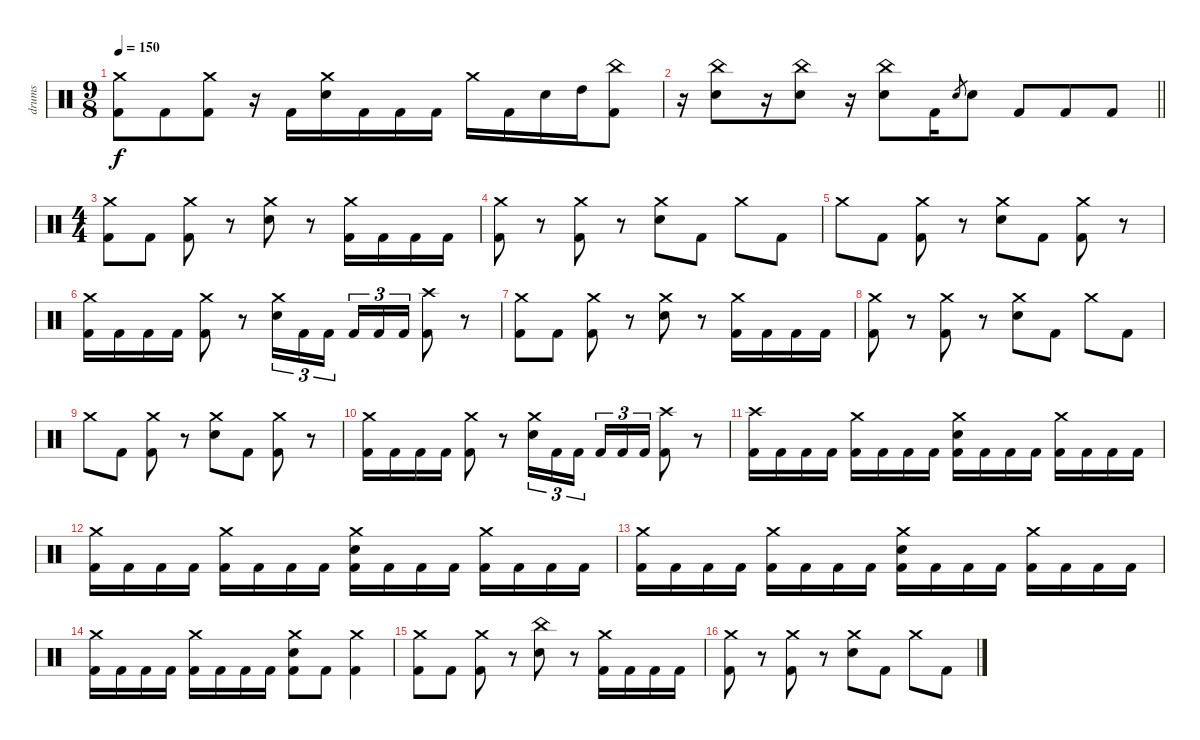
\track ("drums" "drums") {instrument percussion}
\staff {score}
\articulation defaults
\ts (9 8)
\tempo 150
\clef neutral
\ks c
("Crash medium (hit)" "Kick (hit) 2").8{dy f} "Kick (hit) 2".8 ("Crash medium (hit)" "Kick (hit) 2").8 r.16 "Kick (hit) 2".16 ("Crash medium (hit)" "Electric Snare (hit)").16 "Kick (hit) 2".16 "Kick (hit) 2".16 "Kick (hit) 2".16 "Crash medium (hit)".16 "Kick (hit) 2".16 "Electric Snare (hit)".16 "High Tom (hit)".16 ("China (hit)" "Kick (hit) 2").8 |
\barLineRight lightlight
r.16 ("China (hit)" "Electric Snare (hit)").8 r.16 ("China (hit)" "Electric Snare (hit)").8 r.16 ("China (hit)" "Electric Snare (hit)").8 "Kick (hit) 2".16 "Electric Snare (hit)".8{gr} "Electric Snare (hit)".8 "Kick (hit) 2".8 "Kick (hit) 2".8 "Kick (hit) 2".8 |
\ts (4 4)
\section ("" "")
("Crash medium (hit)" "Kick (hit) 2").8 "Kick (hit) 2".8 ("Crash medium (hit)" "Kick (hit) 2").8 r.8 ("Crash medium (hit)" "Electric Snare (hit)").8 r.8 ("Crash medium (hit)" "Kick (hit) 2").16 "Kick (hit) 2".16 "Kick (hit) 2".16 "Kick (hit) 2".16 |
("Crash medium (hit)" "Kick (hit) 2").8 r.8 ("Crash medium (hit)" "Kick (hit) 2").8 r.8 ("Crash medium (hit)" "Electric Snare (hit)").8 "Kick (hit) 2".8 "Crash medium (hit)".8 "Kick (hit) 2".8 |
"Crash medium (hit)".8 "Kick (hit) 2".8 ("Crash medium (hit)" "Kick (hit) 2").8 r.8 ("Crash medium (hit)" "Electric Snare (hit)").8 "Kick (hit) 2".8 ("Crash medium (hit)" "Kick (hit) 2").8 r.8 |
("Crash medium (hit)" "Kick (hit) 2").16 "Kick (hit) 2".16 "Kick (hit) 2".16 "Kick (hit) 2".16 ("Crash medium (hit)" "Kick (hit) 2").8 r.8 ("Crash medium (hit)" "Electric Snare (hit)").16{tu (3 2)} "Kick (hit) 2".16{tu (3 2)} "Kick (hit) 2".16{tu (3 2)} "Kick (hit) 2".16{tu (3 2)} "Kick (hit) 2".16{tu (3 2)} "Kick (hit) 2".16{tu (3 2)} ("Crash high (hit)" "Kick (hit) 2").8 r.8 |
("Crash medium (hit)" "Kick (hit) 2").8 "Kick (hit) 2".8 ("Crash medium (hit)" "Kick (hit) 2").8 r.8 ("Crash medium (hit)" "Electric Snare (hit)").8 r.8 ("Crash medium (hit)" "Kick (hit) 2").16 "Kick (hit) 2".16 "Kick (hit) 2".16 "Kick (hit) 2".16 |
("Crash medium (hit)" "Kick (hit) 2").8 r.8 ("Crash medium (hit)" "Kick (hit) 2").8 r.8 ("Crash medium (hit)" "Electric Snare (hit)").8 "Kick (hit) 2".8 "Crash medium (hit)".8 "Kick (hit) 2".8 |
"Crash medium (hit)".8 "Kick (hit) 2".8 ("Crash medium (hit)" "Kick (hit) 2").8 r.8 ("Crash medium (hit)" "Electric Snare (hit)").8 "Kick (hit) 2".8 ("Crash medium (hit)" "Kick (hit) 2").8 r.8 |
("Crash medium (hit)" "Kick (hit) 2").16 "Kick (hit) 2".16 "Kick (hit) 2".16 "Kick (hit) 2".16 ("Crash medium (hit)" "Kick (hit) 2").8 r.8 ("Crash medium (hit)" "Electric Snare (hit)").16{tu (3 2)} "Kick (hit) 2".16{tu (3 2)} "Kick (hit) 2".16{tu (3 2)} "Kick (hit) 2".16{tu (3 2)} "Kick (hit) 2".16{tu (3 2)} "Kick (hit) 2".16{tu (3 2)} ("Crash high (hit)" "Kick (hit) 2").8 r.8 |
("Crash high (hit)" "Kick (hit) 2").16 "Kick (hit) 2".16 "Kick (hit) 2".16 "Kick (hit) 2".16 ("Crash medium (hit)" "Kick (hit) 2").16 "Kick (hit) 2".16 "Kick (hit) 2".16 "Kick (hit) 2".16 ("Crash medium (hit)" "Electric Snare (hit)" "Kick (hit) 2").16 "Kick (hit) 2".16 "Kick (hit) 2".16 "Kick (hit) 2".16 ("Crash medium (hit)" "Kick (hit) 2").16 "Kick (hit) 2".16 "Kick (hit) 2".16 "Kick (hit) 2".16 |
("Crash medium (hit)" "Kick (hit) 2").16 "Kick (hit) 2".16 "Kick (hit) 2".16 "Kick (hit) 2".16 ("Crash medium (hit)" "Kick (hit) 2").16 "Kick (hit) 2".16 "Kick (hit) 2".16 "Kick (hit) 2".16 ("Crash medium (hit)" "Electric Snare (hit)" "Kick (hit) 2").16 "Kick (hit) 2".16 "Kick (hit) 2".16 "Kick (hit) 2".16 ("Crash medium (hit)" "Kick (hit) 2").16 "Kick (hit) 2".16 "Kick (hit) 2".16 "Kick (hit) 2".16 |
("Crash medium (hit)" "Kick (hit) 2").16 "Kick (hit) 2".16 "Kick (hit) 2".16 "Kick (hit) 2".16 ("Crash medium (hit)" "Kick (hit) 2").16 "Kick (hit) 2".16 "Kick (hit) 2".16 "Kick (hit) 2".16 ("Crash medium (hit)" "Electric Snare (hit)" "Kick (hit) 2").16 "Kick (hit) 2".16 "Kick (hit) 2".16 "Kick (hit) 2".16 ("Crash medium (hit)" "Kick (hit) 2").16 "Kick (hit) 2".16 "Kick (hit) 2".16 "Kick (hit) 2".16 |
("Crash medium (hit)" "Kick (hit) 2").16 "Kick (hit) 2".16 "Kick (hit) 2".16 "Kick (hit) 2".16 ("Crash medium (hit)" "Kick (hit) 2").16 "Kick (hit) 2".16 "Kick (hit) 2".16 "Kick (hit) 2".16 ("Crash medium (hit)" "Electric Snare (hit)" "Kick (hit) 2").8 "Kick (hit) 2".8 ("Crash medium (hit)" "Kick (hit) 2").4 |
("Crash medium (hit)" "Kick (hit) 2").8 "Kick (hit) 2".8 ("Crash medium (hit)" "Kick (hit) 2").8 r.8 ("China (hit)" "Electric Snare (hit)").8 r.8 ("Crash medium (hit)" "Kick (hit) 2").16 "Kick (hit) 2".16 "Kick (hit) 2".16 "Kick (hit) 2".16 |
("Crash medium (hit)" "Kick (hit) 2").8 r.8 ("Crash medium (hit)" "Kick (hit) 2").8 r.8 ("Crash medium (hit)" "Electric Snare (hit)").8 "Kick (hit) 2".8 "Crash medium (hit)".8 "Kick (hit) 2".8
